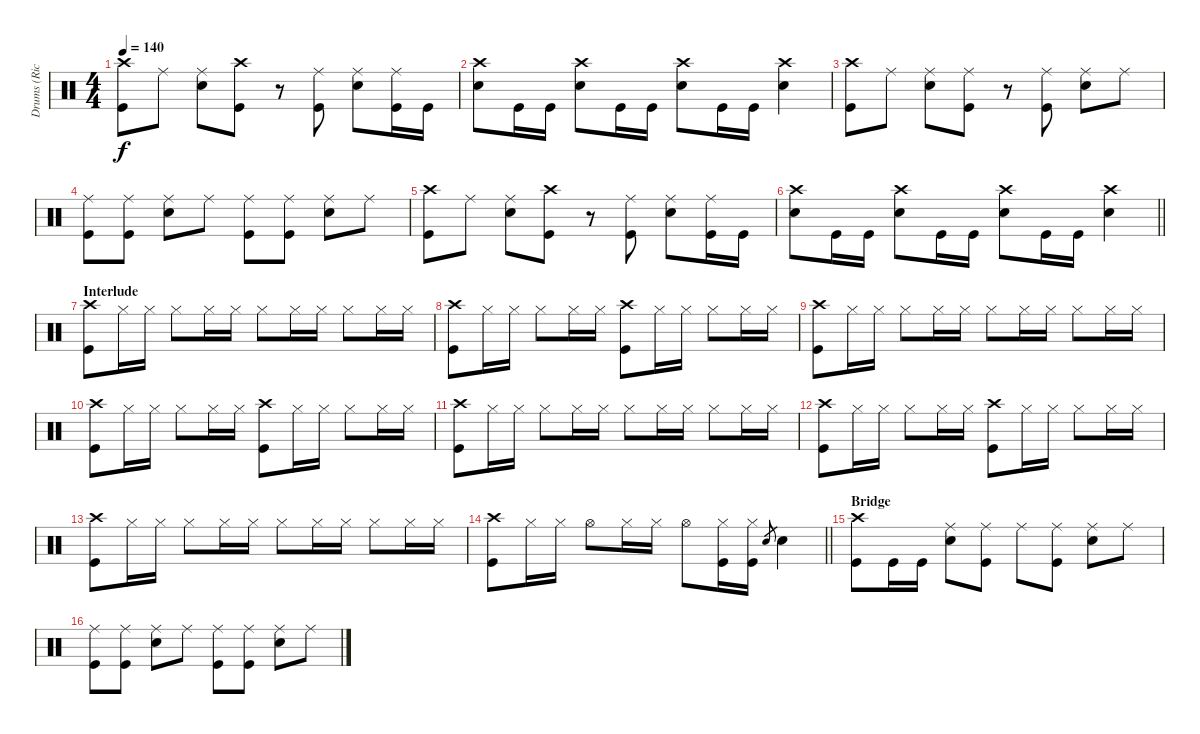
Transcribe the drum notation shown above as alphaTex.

\track ("Drums (Rick)" "Drums (Ric") {instrument percussion}
\staff {score}
\articulation defaults
\ts (4 4)
\tempo 140
\clef neutral
\ks aminor
("Crash high (hit)" "Kick (hit)").8{dy f} "Ride (middle)".8 ("Ride (middle)" "Snare (hit) 2").8 ("Crash high (hit)" "Kick (hit)").8 r.8 ("Ride (middle)" "Kick (hit)").8 ("Ride (middle)" "Snare (hit) 2").8 ("Ride (middle)" "Kick (hit)").16 "Kick (hit)".16 |
("Crash high (hit)" "Snare (hit) 2").8 "Kick (hit)".16 "Kick (hit)".16 ("Crash high (hit)" "Snare (hit) 2").8 "Kick (hit)".16 "Kick (hit)".16 ("Crash high (hit)" "Snare (hit) 2").8 "Kick (hit)".16 "Kick (hit)".16 ("Crash high (hit)" "Snare (hit) 2").4 |
("Crash high (hit)" "Kick (hit)").8 "Ride (middle)".8 ("Ride (middle)" "Snare (hit) 2").8 ("Ride (middle)" "Kick (hit)").8 r.8 ("Ride (middle)" "Kick (hit)").8 ("Ride (middle)" "Snare (hit) 2").8 "Ride (middle)".8 |
("Ride (middle)" "Kick (hit)").8 ("Ride (middle)" "Kick (hit)").8 ("Ride (middle)" "Snare (hit) 2").8 "Ride (middle)".8 ("Ride (middle)" "Kick (hit)").8 ("Ride (middle)" "Kick (hit)").8 ("Ride (middle)" "Snare (hit) 2").8 "Ride (middle)".8 |
("Crash high (hit)" "Kick (hit)").8 "Ride (middle)".8 ("Ride (middle)" "Snare (hit) 2").8 ("Crash high (hit)" "Kick (hit)").8 r.8 ("Ride (middle)" "Kick (hit)").8 ("Ride (middle)" "Snare (hit) 2").8 ("Ride (middle)" "Kick (hit)").16 "Kick (hit)".16 |
\barLineRight lightlight
("Crash high (hit)" "Snare (hit) 2").8 "Kick (hit)".16 "Kick (hit)".16 ("Crash high (hit)" "Snare (hit) 2").8 "Kick (hit)".16 "Kick (hit)".16 ("Crash high (hit)" "Snare (hit) 2").8 "Kick (hit)".16 "Kick (hit)".16 ("Crash high (hit)" "Snare (hit) 2").4 |
\section ("" "Interlude")
("Crash high (hit)" "Kick (hit)").8 "Hi-Hat (closed)".16 "Hi-Hat (closed)".16 "Hi-Hat (closed)".8 "Hi-Hat (closed)".16 "Hi-Hat (closed)".16 "Hi-Hat (closed)".8 "Hi-Hat (closed)".16 "Hi-Hat (closed)".16 "Hi-Hat (closed)".8 "Hi-Hat (closed)".16 "Hi-Hat (closed)".16 |
("Crash high (hit)" "Kick (hit)").8 "Hi-Hat (closed)".16 "Hi-Hat (closed)".16 "Hi-Hat (closed)".8 "Hi-Hat (closed)".16 "Hi-Hat (closed)".16 ("Crash high (hit)" "Kick (hit)").8 "Hi-Hat (closed)".16 "Hi-Hat (closed)".16 "Hi-Hat (closed)".8 "Hi-Hat (closed)".16 "Hi-Hat (closed)".16 |
("Crash high (hit)" "Kick (hit)").8 "Hi-Hat (closed)".16 "Hi-Hat (closed)".16 "Hi-Hat (closed)".8 "Hi-Hat (closed)".16 "Hi-Hat (closed)".16 "Hi-Hat (closed)".8 "Hi-Hat (closed)".16 "Hi-Hat (closed)".16 "Hi-Hat (closed)".8 "Hi-Hat (closed)".16 "Hi-Hat (closed)".16 |
("Crash high (hit)" "Kick (hit)").8 "Hi-Hat (closed)".16 "Hi-Hat (closed)".16 "Hi-Hat (closed)".8 "Hi-Hat (closed)".16 "Hi-Hat (closed)".16 ("Crash high (hit)" "Kick (hit)").8 "Hi-Hat (closed)".16 "Hi-Hat (closed)".16 "Hi-Hat (closed)".8 "Hi-Hat (closed)".16 "Hi-Hat (closed)".16 |
("Crash high (hit)" "Kick (hit)").8 "Hi-Hat (closed)".16 "Hi-Hat (closed)".16 "Hi-Hat (closed)".8 "Hi-Hat (closed)".16 "Hi-Hat (closed)".16 "Hi-Hat (closed)".8 "Hi-Hat (closed)".16 "Hi-Hat (closed)".16 "Hi-Hat (closed)".8 "Hi-Hat (closed)".16 "Hi-Hat (closed)".16 |
("Crash high (hit)" "Kick (hit)").8 "Hi-Hat (closed)".16 "Hi-Hat (closed)".16 "Hi-Hat (closed)".8 "Hi-Hat (closed)".16 "Hi-Hat (closed)".16 ("Crash high (hit)" "Kick (hit)").8 "Hi-Hat (closed)".16 "Hi-Hat (closed)".16 "Hi-Hat (closed)".8 "Hi-Hat (closed)".16 "Hi-Hat (closed)".16 |
("Crash high (hit)" "Kick (hit)").8 "Hi-Hat (closed)".16 "Hi-Hat (closed)".16 "Hi-Hat (closed)".8 "Hi-Hat (closed)".16 "Hi-Hat (closed)".16 "Hi-Hat (closed)".8 "Hi-Hat (closed)".16 "Hi-Hat (closed)".16 "Hi-Hat (closed)".8 "Hi-Hat (closed)".16 "Hi-Hat (closed)".16 |
\barLineRight lightlight
("Crash high (hit)" "Kick (hit)").8 "Hi-Hat (closed)".16 "Hi-Hat (closed)".16 "Hi-Hat (open)".8 "Hi-Hat (closed)".16 "Hi-Hat (closed)".16 "Hi-Hat (open)".8 ("Hi-Hat (closed)" "Kick (hit)").16 ("Hi-Hat (closed)" "Kick (hit)").16 "Snare (hit) 2".8{gr} "Snare (hit) 2".4 |
\section ("" "Bridge")
("Crash high (hit)" "Kick (hit)").8 "Kick (hit)".16 "Kick (hit)".16 ("Ride (middle)" "Snare (hit) 2").8 ("Ride (middle)" "Kick (hit)").8 "Ride (middle)".8 ("Ride (middle)" "Kick (hit)").8 ("Ride (middle)" "Snare (hit) 2").8 "Ride (middle)".8 |
("Ride (middle)" "Kick (hit)").8 ("Ride (middle)" "Kick (hit)").8 ("Ride (middle)" "Snare (hit) 2").8 "Ride (middle)".8 ("Ride (middle)" "Kick (hit)").8 ("Ride (middle)" "Kick (hit)").8 ("Ride (middle)" "Snare (hit) 2").8 "Ride (middle)".8
